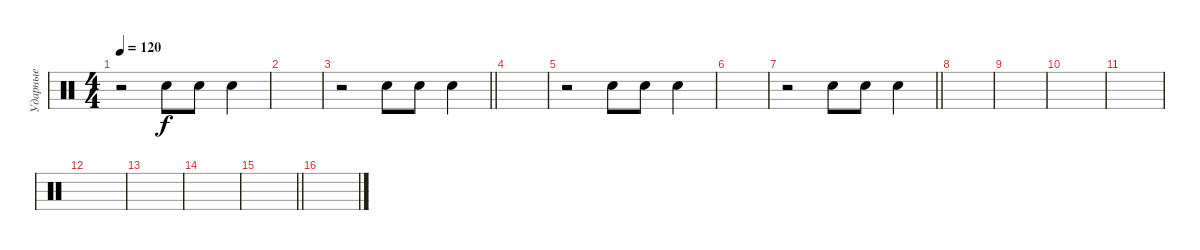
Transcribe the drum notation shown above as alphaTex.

\track ("Ударные" "Ударные") {instrument percussion}
\staff {score}
\articulation defaults
\ts (4 4)
\tempo 120
\clef neutral
\ks c
r.2{dy f} "Hand Clap (hit)".8 "Hand Clap (hit)".8 "Hand Clap (hit)".4 |
|
\barLineRight lightlight
r.2 "Hand Clap (hit)".8 "Hand Clap (hit)".8 "Hand Clap (hit)".4 |
|
r.2 "Hand Clap (hit)".8 "Hand Clap (hit)".8 "Hand Clap (hit)".4 |
|
\barLineRight lightlight
r.2 "Hand Clap (hit)".8 "Hand Clap (hit)".8 "Hand Clap (hit)".4 |
\section ("" "")
|
|
|
|
|
|
|
\barLineRight lightlight
|
\section ("" "")
